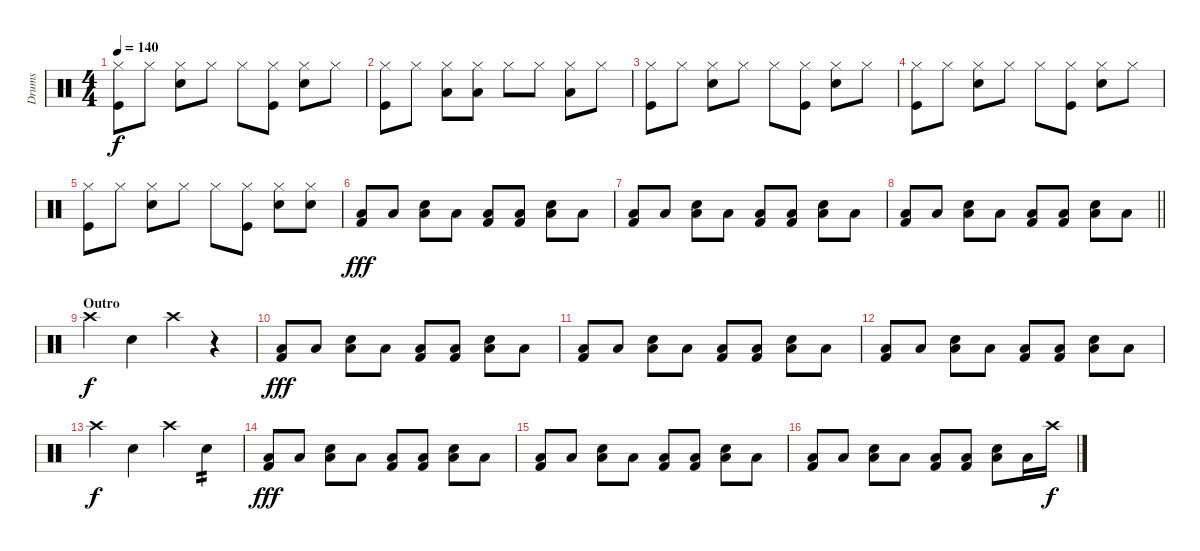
\track ("Drums" "Drums") {instrument percussion}
\staff {score}
\articulation defaults
\ts (4 4)
\tempo 140
\clef neutral
\ks c
("Hi-Hat (closed)" "Kick (hit)").8{dy f} "Hi-Hat (closed)".8 ("Hi-Hat (closed)" "Snare (hit) 2").8 "Hi-Hat (closed)".8 "Hi-Hat (closed)".8 ("Hi-Hat (closed)" "Kick (hit)").8 ("Hi-Hat (closed)" "Snare (hit) 2").8 "Hi-Hat (closed)".8 |
("Hi-Hat (closed)" "Kick (hit)").8 "Hi-Hat (closed)".8 ("Hi-Hat (closed)" "Low Tom (hit)").8 ("Hi-Hat (closed)" "Low Tom (hit)").8 "Hi-Hat (closed)".8 "Hi-Hat (closed)".8 ("Hi-Hat (closed)" "Low Tom (hit)").8 "Hi-Hat (closed)".8 |
("Hi-Hat (closed)" "Kick (hit)").8 "Hi-Hat (closed)".8 ("Hi-Hat (closed)" "Snare (hit) 2").8 "Hi-Hat (closed)".8 "Hi-Hat (closed)".8 ("Hi-Hat (closed)" "Kick (hit)").8 ("Hi-Hat (closed)" "Snare (hit) 2").8 "Hi-Hat (closed)".8 |
("Hi-Hat (closed)" "Kick (hit)").8 "Hi-Hat (closed)".8 ("Hi-Hat (closed)" "Snare (hit) 2").8 "Hi-Hat (closed)".8 "Hi-Hat (closed)".8 ("Hi-Hat (closed)" "Kick (hit)").8 ("Hi-Hat (closed)" "Snare (hit) 2").8 "Hi-Hat (closed)".8 |
("Hi-Hat (closed)" "Kick (hit)").8 "Hi-Hat (closed)".8 ("Hi-Hat (closed)" "Snare (hit) 2").8 "Hi-Hat (closed)".8 "Hi-Hat (closed)".8 ("Hi-Hat (closed)" "Kick (hit)").8 ("Hi-Hat (closed)" "Snare (hit) 2").8 ("Hi-Hat (closed)" "Snare (hit) 2").8 |
("Kick (hit) 2" "Low Floor Tom (hit)").8{dy fff} "Low Floor Tom (hit)".8 ("Snare (hit) 2" "Low Floor Tom (hit)").8 "Low Floor Tom (hit)".8 ("Kick (hit) 2" "Low Floor Tom (hit)").8 ("Kick (hit) 2" "Low Floor Tom (hit)").8 ("Snare (hit) 2" "Low Floor Tom (hit)").8 "Low Floor Tom (hit)".8 |
("Kick (hit) 2" "Low Floor Tom (hit)").8 "Low Floor Tom (hit)".8 ("Snare (hit) 2" "Low Floor Tom (hit)").8 "Low Floor Tom (hit)".8 ("Kick (hit) 2" "Low Floor Tom (hit)").8 ("Kick (hit) 2" "Low Floor Tom (hit)").8 ("Snare (hit) 2" "Low Floor Tom (hit)").8 "Low Floor Tom (hit)".8 |
\barLineRight lightlight
("Kick (hit) 2" "Low Floor Tom (hit)").8 "Low Floor Tom (hit)".8 ("Snare (hit) 2" "Low Floor Tom (hit)").8 "Low Floor Tom (hit)".8 ("Kick (hit) 2" "Low Floor Tom (hit)").8 ("Kick (hit) 2" "Low Floor Tom (hit)").8 ("Snare (hit) 2" "Low Floor Tom (hit)").8 "Low Floor Tom (hit)".8 |
\section ("" "Outro")
"Crash high (hit)".4{dy f} "Snare (hit) 2".4 "Crash high (hit)".4 r.4 |
("Kick (hit) 2" "Low Floor Tom (hit)").8{dy fff} "Low Floor Tom (hit)".8 ("Snare (hit) 2" "Low Floor Tom (hit)").8 "Low Floor Tom (hit)".8 ("Kick (hit) 2" "Low Floor Tom (hit)").8 ("Kick (hit) 2" "Low Floor Tom (hit)").8 ("Snare (hit) 2" "Low Floor Tom (hit)").8 "Low Floor Tom (hit)".8 |
("Kick (hit) 2" "Low Floor Tom (hit)").8 "Low Floor Tom (hit)".8 ("Snare (hit) 2" "Low Floor Tom (hit)").8 "Low Floor Tom (hit)".8 ("Kick (hit) 2" "Low Floor Tom (hit)").8 ("Kick (hit) 2" "Low Floor Tom (hit)").8 ("Snare (hit) 2" "Low Floor Tom (hit)").8 "Low Floor Tom (hit)".8 |
("Kick (hit) 2" "Low Floor Tom (hit)").8 "Low Floor Tom (hit)".8 ("Snare (hit) 2" "Low Floor Tom (hit)").8 "Low Floor Tom (hit)".8 ("Kick (hit) 2" "Low Floor Tom (hit)").8 ("Kick (hit) 2" "Low Floor Tom (hit)").8 ("Snare (hit) 2" "Low Floor Tom (hit)").8 "Low Floor Tom (hit)".8 |
"Crash high (hit)".4{dy f} "Snare (hit) 2".4 "Crash high (hit)".4 "Snare (hit) 2".4{tp 2} |
("Kick (hit) 2" "Low Floor Tom (hit)").8{dy fff} "Low Floor Tom (hit)".8 ("Snare (hit) 2" "Low Floor Tom (hit)").8 "Low Floor Tom (hit)".8 ("Kick (hit) 2" "Low Floor Tom (hit)").8 ("Kick (hit) 2" "Low Floor Tom (hit)").8 ("Snare (hit) 2" "Low Floor Tom (hit)").8 "Low Floor Tom (hit)".8 |
("Kick (hit) 2" "Low Floor Tom (hit)").8 "Low Floor Tom (hit)".8 ("Snare (hit) 2" "Low Floor Tom (hit)").8 "Low Floor Tom (hit)".8 ("Kick (hit) 2" "Low Floor Tom (hit)").8 ("Kick (hit) 2" "Low Floor Tom (hit)").8 ("Snare (hit) 2" "Low Floor Tom (hit)").8 "Low Floor Tom (hit)".8 |
("Kick (hit) 2" "Low Floor Tom (hit)").8 "Low Floor Tom (hit)".8 ("Snare (hit) 2" "Low Floor Tom (hit)").8 "Low Floor Tom (hit)".8 ("Kick (hit) 2" "Low Floor Tom (hit)").8 ("Kick (hit) 2" "Low Floor Tom (hit)").8 ("Snare (hit) 2" "Low Floor Tom (hit)").8 "Low Floor Tom (hit)".16 "Crash high (hit)".16{dy f}
